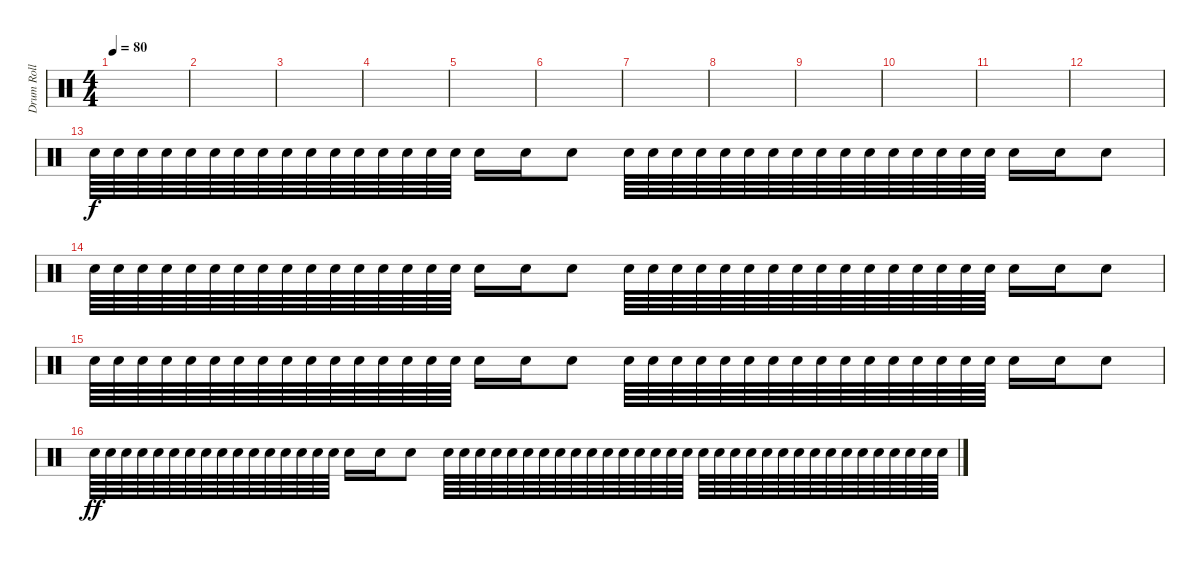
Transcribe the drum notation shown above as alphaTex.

\track ("Drum Roll" "Drum Roll") {instrument percussion}
\staff {score}
\articulation defaults
\ts (4 4)
\tempo 80
\clef neutral
\ks c
|
|
|
|
|
|
|
|
|
|
|
|
"Snare (hit) 2".64{volume 14} "Snare (hit) 2".64 "Snare (hit) 2".64 "Snare (hit) 2".64 "Snare (hit) 2".64 "Snare (hit) 2".64 "Snare (hit) 2".64 "Snare (hit) 2".64 "Snare (hit) 2".64 "Snare (hit) 2".64 "Snare (hit) 2".64 "Snare (hit) 2".64 "Snare (hit) 2".64 "Snare (hit) 2".64 "Snare (hit) 2".64 "Snare (hit) 2".64 "Snare (hit) 2".16 "Snare (hit) 2".16 "Snare (hit) 2".8 "Snare (hit) 2".64 "Snare (hit) 2".64 "Snare (hit) 2".64 "Snare (hit) 2".64 "Snare (hit) 2".64 "Snare (hit) 2".64 "Snare (hit) 2".64 "Snare (hit) 2".64 "Snare (hit) 2".64 "Snare (hit) 2".64 "Snare (hit) 2".64 "Snare (hit) 2".64 "Snare (hit) 2".64 "Snare (hit) 2".64 "Snare (hit) 2".64 "Snare (hit) 2".64 "Snare (hit) 2".16 "Snare (hit) 2".16 "Snare (hit) 2".8 |
"Snare (hit) 2".64 "Snare (hit) 2".64 "Snare (hit) 2".64 "Snare (hit) 2".64 "Snare (hit) 2".64 "Snare (hit) 2".64 "Snare (hit) 2".64 "Snare (hit) 2".64 "Snare (hit) 2".64 "Snare (hit) 2".64 "Snare (hit) 2".64 "Snare (hit) 2".64 "Snare (hit) 2".64 "Snare (hit) 2".64 "Snare (hit) 2".64 "Snare (hit) 2".64 "Snare (hit) 2".16 "Snare (hit) 2".16 "Snare (hit) 2".8 "Snare (hit) 2".64 "Snare (hit) 2".64 "Snare (hit) 2".64 "Snare (hit) 2".64 "Snare (hit) 2".64 "Snare (hit) 2".64 "Snare (hit) 2".64 "Snare (hit) 2".64 "Snare (hit) 2".64 "Snare (hit) 2".64 "Snare (hit) 2".64 "Snare (hit) 2".64 "Snare (hit) 2".64 "Snare (hit) 2".64 "Snare (hit) 2".64 "Snare (hit) 2".64 "Snare (hit) 2".16 "Snare (hit) 2".16 "Snare (hit) 2".8 |
"Snare (hit) 2".64 "Snare (hit) 2".64 "Snare (hit) 2".64 "Snare (hit) 2".64 "Snare (hit) 2".64 "Snare (hit) 2".64 "Snare (hit) 2".64 "Snare (hit) 2".64 "Snare (hit) 2".64 "Snare (hit) 2".64 "Snare (hit) 2".64 "Snare (hit) 2".64 "Snare (hit) 2".64 "Snare (hit) 2".64 "Snare (hit) 2".64 "Snare (hit) 2".64 "Snare (hit) 2".16 "Snare (hit) 2".16 "Snare (hit) 2".8 "Snare (hit) 2".64 "Snare (hit) 2".64 "Snare (hit) 2".64 "Snare (hit) 2".64 "Snare (hit) 2".64 "Snare (hit) 2".64 "Snare (hit) 2".64 "Snare (hit) 2".64 "Snare (hit) 2".64 "Snare (hit) 2".64 "Snare (hit) 2".64 "Snare (hit) 2".64 "Snare (hit) 2".64 "Snare (hit) 2".64 "Snare (hit) 2".64 "Snare (hit) 2".64 "Snare (hit) 2".16 "Snare (hit) 2".16 "Snare (hit) 2".8 |
"Snare (hit) 2".64{dy ff} "Snare (hit) 2".64 "Snare (hit) 2".64 "Snare (hit) 2".64 "Snare (hit) 2".64 "Snare (hit) 2".64 "Snare (hit) 2".64 "Snare (hit) 2".64 "Snare (hit) 2".64 "Snare (hit) 2".64 "Snare (hit) 2".64 "Snare (hit) 2".64 "Snare (hit) 2".64 "Snare (hit) 2".64 "Snare (hit) 2".64 "Snare (hit) 2".64 "Snare (hit) 2".16 "Snare (hit) 2".16 "Snare (hit) 2".8 "Snare (hit) 2".64 "Snare (hit) 2".64 "Snare (hit) 2".64 "Snare (hit) 2".64 "Snare (hit) 2".64 "Snare (hit) 2".64 "Snare (hit) 2".64 "Snare (hit) 2".64 "Snare (hit) 2".64 "Snare (hit) 2".64 "Snare (hit) 2".64 "Snare (hit) 2".64 "Snare (hit) 2".64 "Snare (hit) 2".64 "Snare (hit) 2".64 "Snare (hit) 2".64 "Snare (hit) 2".64 "Snare (hit) 2".64 "Snare (hit) 2".64 "Snare (hit) 2".64 "Snare (hit) 2".64 "Snare (hit) 2".64 "Snare (hit) 2".64 "Snare (hit) 2".64 "Snare (hit) 2".64 "Snare (hit) 2".64 "Snare (hit) 2".64 "Snare (hit) 2".64 "Snare (hit) 2".64 "Snare (hit) 2".64 "Snare (hit) 2".64 "Snare (hit) 2".64
